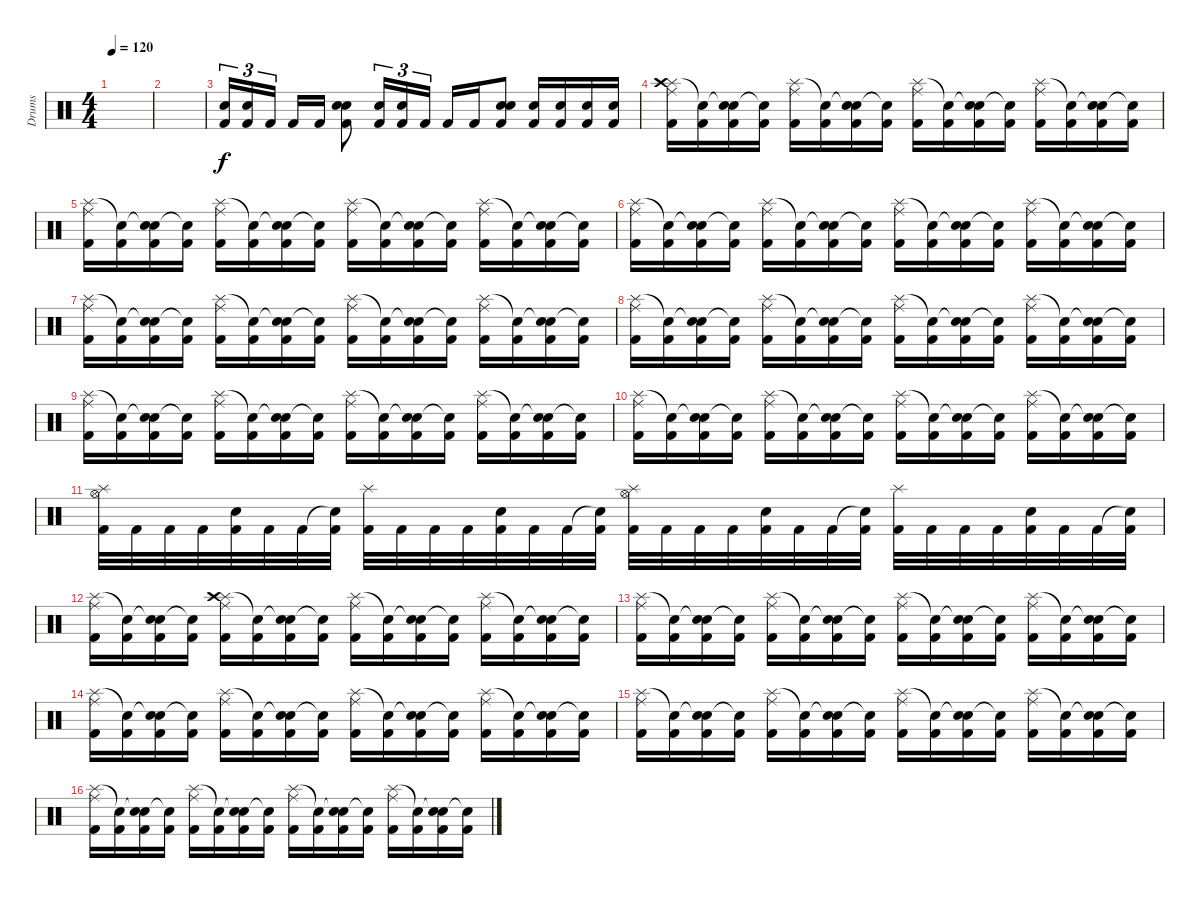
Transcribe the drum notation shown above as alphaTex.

\track ("Drums" "Drums") {instrument percussion}
\staff {score}
\articulation defaults
\ts (4 4)
\tempo 120
\clef neutral
\ks c
|
|
("Snare (hit) 2" "Kick (hit) 2").16{tu (3 2)} ("Snare (hit) 2" "Kick (hit) 2").16{tu (3 2)} "Kick (hit) 2".16{tu (3 2)} "Kick (hit) 2".16 "Kick (hit) 2".16 ("Electric Snare (hit)" "Snare (hit) 2" "Kick (hit) 2").8 ("Snare (hit) 2" "Kick (hit) 2").16{tu (3 2)} ("Snare (hit) 2" "Kick (hit) 2").16{tu (3 2)} "Kick (hit) 2".16{tu (3 2)} "Kick (hit) 2".16 "Kick (hit) 2".16 ("Electric Snare (hit)" "Snare (hit) 2" "Kick (hit) 2").8 ("Electric Snare (hit)" "Kick (hit) 2").16 ("Electric Snare (hit)" "Kick (hit) 2").16 ("Electric Snare (hit)" "Kick (hit) 2").16 ("Electric Snare (hit)" "Kick (hit) 2").16 |
("Splash (hit)" "Ride (middle)" "Kick (hit) 2" "Crash high (hit)").16 ("Snare (hit)"{t} "Kick (hit) 2").16 ("Snare (hit)"{t} "Electric Snare (hit)" "Kick (hit) 2").16 ("Snare (hit)"{t} "Kick (hit) 2").16 ("Splash (hit)" "Ride (middle)" "Kick (hit) 2").16 ("Snare (hit)"{t} "Kick (hit) 2").16 ("Snare (hit)"{t} "Electric Snare (hit)" "Kick (hit) 2").16 ("Snare (hit)"{t} "Kick (hit) 2").16 ("Splash (hit)" "Ride (middle)" "Kick (hit) 2").16 ("Snare (hit)"{t} "Kick (hit) 2").16 ("Snare (hit)"{t} "Electric Snare (hit)" "Kick (hit) 2").16 ("Snare (hit)"{t} "Kick (hit) 2").16 ("Splash (hit)" "Ride (middle)" "Kick (hit) 2").16 ("Snare (hit)"{t} "Kick (hit) 2").16 ("Snare (hit)"{t} "Electric Snare (hit)" "Kick (hit) 2").16 ("Snare (hit)"{t} "Kick (hit) 2").16 |
("Splash (hit)" "Ride (middle)" "Kick (hit) 2").16 ("Snare (hit)"{t} "Kick (hit) 2").16 ("Snare (hit)"{t} "Electric Snare (hit)" "Kick (hit) 2").16 ("Snare (hit)"{t} "Kick (hit) 2").16 ("Splash (hit)" "Ride (middle)" "Kick (hit) 2").16 ("Snare (hit)"{t} "Kick (hit) 2").16 ("Snare (hit)"{t} "Electric Snare (hit)" "Kick (hit) 2").16 ("Snare (hit)"{t} "Kick (hit) 2").16 ("Splash (hit)" "Ride (middle)" "Kick (hit) 2").16 ("Snare (hit)"{t} "Kick (hit) 2").16 ("Snare (hit)"{t} "Electric Snare (hit)" "Kick (hit) 2").16 ("Snare (hit)"{t} "Kick (hit) 2").16 ("Splash (hit)" "Ride (middle)" "Kick (hit) 2").16 ("Snare (hit)"{t} "Kick (hit) 2").16 ("Snare (hit)"{t} "Electric Snare (hit)" "Kick (hit) 2").16 ("Snare (hit)"{t} "Kick (hit) 2").16 |
("Splash (hit)" "Ride (middle)" "Kick (hit) 2").16 ("Snare (hit)"{t} "Kick (hit) 2").16 ("Snare (hit)"{t} "Electric Snare (hit)" "Kick (hit) 2").16 ("Snare (hit)"{t} "Kick (hit) 2").16 ("Splash (hit)" "Ride (middle)" "Kick (hit) 2").16 ("Snare (hit)"{t} "Kick (hit) 2").16 ("Snare (hit)"{t} "Electric Snare (hit)" "Kick (hit) 2").16 ("Snare (hit)"{t} "Kick (hit) 2").16 ("Splash (hit)" "Ride (middle)" "Kick (hit) 2").16 ("Snare (hit)"{t} "Kick (hit) 2").16 ("Snare (hit)"{t} "Electric Snare (hit)" "Kick (hit) 2").16 ("Snare (hit)"{t} "Kick (hit) 2").16 ("Splash (hit)" "Ride (middle)" "Kick (hit) 2").16 ("Snare (hit)"{t} "Kick (hit) 2").16 ("Snare (hit)"{t} "Electric Snare (hit)" "Kick (hit) 2").16 ("Snare (hit)"{t} "Kick (hit) 2").16 |
("Splash (hit)" "Ride (middle)" "Kick (hit) 2").16 ("Snare (hit)"{t} "Kick (hit) 2").16 ("Snare (hit)"{t} "Electric Snare (hit)" "Kick (hit) 2").16 ("Snare (hit)"{t} "Kick (hit) 2").16 ("Splash (hit)" "Ride (middle)" "Kick (hit) 2").16 ("Snare (hit)"{t} "Kick (hit) 2").16 ("Snare (hit)"{t} "Electric Snare (hit)" "Kick (hit) 2").16 ("Snare (hit)"{t} "Kick (hit) 2").16 ("Splash (hit)" "Ride (middle)" "Kick (hit) 2").16 ("Snare (hit)"{t} "Kick (hit) 2").16 ("Snare (hit)"{t} "Electric Snare (hit)" "Kick (hit) 2").16 ("Snare (hit)"{t} "Kick (hit) 2").16 ("Splash (hit)" "Ride (middle)" "Kick (hit) 2").16 ("Snare (hit)"{t} "Kick (hit) 2").16 ("Snare (hit)"{t} "Electric Snare (hit)" "Kick (hit) 2").16 ("Snare (hit)"{t} "Kick (hit) 2").16 |
("Splash (hit)" "Ride (middle)" "Kick (hit) 2").16 ("Snare (hit)"{t} "Kick (hit) 2").16 ("Snare (hit)"{t} "Electric Snare (hit)" "Kick (hit) 2").16 ("Snare (hit)"{t} "Kick (hit) 2").16 ("Splash (hit)" "Ride (middle)" "Kick (hit) 2").16 ("Snare (hit)"{t} "Kick (hit) 2").16 ("Snare (hit)"{t} "Electric Snare (hit)" "Kick (hit) 2").16 ("Snare (hit)"{t} "Kick (hit) 2").16 ("Splash (hit)" "Ride (middle)" "Kick (hit) 2").16 ("Snare (hit)"{t} "Kick (hit) 2").16 ("Snare (hit)"{t} "Electric Snare (hit)" "Kick (hit) 2").16 ("Snare (hit)"{t} "Kick (hit) 2").16 ("Splash (hit)" "Ride (middle)" "Kick (hit) 2").16 ("Snare (hit)"{t} "Kick (hit) 2").16 ("Snare (hit)"{t} "Electric Snare (hit)" "Kick (hit) 2").16 ("Snare (hit)"{t} "Kick (hit) 2").16 |
("Splash (hit)" "Ride (middle)" "Kick (hit) 2").16 ("Snare (hit)"{t} "Kick (hit) 2").16 ("Snare (hit)"{t} "Electric Snare (hit)" "Kick (hit) 2").16 ("Snare (hit)"{t} "Kick (hit) 2").16 ("Splash (hit)" "Ride (middle)" "Kick (hit) 2").16 ("Snare (hit)"{t} "Kick (hit) 2").16 ("Snare (hit)"{t} "Electric Snare (hit)" "Kick (hit) 2").16 ("Snare (hit)"{t} "Kick (hit) 2").16 ("Splash (hit)" "Ride (middle)" "Kick (hit) 2").16 ("Snare (hit)"{t} "Kick (hit) 2").16 ("Snare (hit)"{t} "Electric Snare (hit)" "Kick (hit) 2").16 ("Snare (hit)"{t} "Kick (hit) 2").16 ("Splash (hit)" "Ride (middle)" "Kick (hit) 2").16 ("Snare (hit)"{t} "Kick (hit) 2").16 ("Snare (hit)"{t} "Electric Snare (hit)" "Kick (hit) 2").16 ("Snare (hit)"{t} "Kick (hit) 2").16 |
("Splash (hit)" "Ride (middle)" "Kick (hit) 2").16 ("Snare (hit)"{t} "Kick (hit) 2").16 ("Snare (hit)"{t} "Electric Snare (hit)" "Kick (hit) 2").16 ("Snare (hit)"{t} "Kick (hit) 2").16 ("Splash (hit)" "Ride (middle)" "Kick (hit) 2").16 ("Snare (hit)"{t} "Kick (hit) 2").16 ("Snare (hit)"{t} "Electric Snare (hit)" "Kick (hit) 2").16 ("Snare (hit)"{t} "Kick (hit) 2").16 ("Splash (hit)" "Ride (middle)" "Kick (hit) 2").16 ("Snare (hit)"{t} "Kick (hit) 2").16 ("Snare (hit)"{t} "Electric Snare (hit)" "Kick (hit) 2").16 ("Snare (hit)"{t} "Kick (hit) 2").16 ("Splash (hit)" "Ride (middle)" "Kick (hit) 2").16 ("Snare (hit)"{t} "Kick (hit) 2").16 ("Snare (hit)"{t} "Electric Snare (hit)" "Kick (hit) 2").16 ("Snare (hit)"{t} "Kick (hit) 2").16 |
("Splash (hit)" "Hi-Hat (open)" "Kick (hit) 2").32 "Kick (hit) 2".32 "Kick (hit) 2".32 "Kick (hit) 2".32 ("Electric Snare (hit)" "Kick (hit) 2").32 "Kick (hit) 2".32 "Kick (hit) 2".32 ("Snare (hit)"{t} "Kick (hit) 2").32 ("Splash (hit)" "Kick (hit) 2").32 "Kick (hit) 2".32 "Kick (hit) 2".32 "Kick (hit) 2".32 ("Electric Snare (hit)" "Kick (hit) 2").32 "Kick (hit) 2".32 "Kick (hit) 2".32 ("Snare (hit)"{t} "Kick (hit) 2").32 ("Splash (hit)" "Hi-Hat (open)" "Kick (hit) 2").32 "Kick (hit) 2".32 "Kick (hit) 2".32 "Kick (hit) 2".32 ("Electric Snare (hit)" "Kick (hit) 2").32 "Kick (hit) 2".32 "Kick (hit) 2".32 ("Snare (hit)"{t} "Kick (hit) 2").32 ("Splash (hit)" "Kick (hit) 2").32 "Kick (hit) 2".32 "Kick (hit) 2".32 "Kick (hit) 2".32 ("Electric Snare (hit)" "Kick (hit) 2").32 "Kick (hit) 2".32 "Kick (hit) 2".32 ("Snare (hit)"{t} "Kick (hit) 2").32 |
("Splash (hit)" "Ride (middle)" "Kick (hit) 2").16 ("Snare (hit)"{t} "Kick (hit) 2").16 ("Snare (hit)"{t} "Electric Snare (hit)" "Kick (hit) 2").16 ("Snare (hit)"{t} "Kick (hit) 2").16 ("Splash (hit)" "Ride (middle)" "Kick (hit) 2" "Crash high (hit)").16 ("Snare (hit)"{t} "Kick (hit) 2").16 ("Snare (hit)"{t} "Electric Snare (hit)" "Kick (hit) 2").16 ("Snare (hit)"{t} "Kick (hit) 2").16 ("Splash (hit)" "Ride (middle)" "Kick (hit) 2").16 ("Snare (hit)"{t} "Kick (hit) 2").16 ("Snare (hit)"{t} "Electric Snare (hit)" "Kick (hit) 2").16 ("Snare (hit)"{t} "Kick (hit) 2").16 ("Splash (hit)" "Ride (middle)" "Kick (hit) 2").16 ("Snare (hit)"{t} "Kick (hit) 2").16 ("Snare (hit)"{t} "Electric Snare (hit)" "Kick (hit) 2").16 ("Snare (hit)"{t} "Kick (hit) 2").16 |
("Splash (hit)" "Ride (middle)" "Kick (hit) 2").16 ("Snare (hit)"{t} "Kick (hit) 2").16 ("Snare (hit)"{t} "Electric Snare (hit)" "Kick (hit) 2").16 ("Snare (hit)"{t} "Kick (hit) 2").16 ("Splash (hit)" "Ride (middle)" "Kick (hit) 2").16 ("Snare (hit)"{t} "Kick (hit) 2").16 ("Snare (hit)"{t} "Electric Snare (hit)" "Kick (hit) 2").16 ("Snare (hit)"{t} "Kick (hit) 2").16 ("Splash (hit)" "Ride (middle)" "Kick (hit) 2").16 ("Snare (hit)"{t} "Kick (hit) 2").16 ("Snare (hit)"{t} "Electric Snare (hit)" "Kick (hit) 2").16 ("Snare (hit)"{t} "Kick (hit) 2").16 ("Splash (hit)" "Ride (middle)" "Kick (hit) 2").16 ("Snare (hit)"{t} "Kick (hit) 2").16 ("Snare (hit)"{t} "Electric Snare (hit)" "Kick (hit) 2").16 ("Snare (hit)"{t} "Kick (hit) 2").16 |
("Splash (hit)" "Ride (middle)" "Kick (hit) 2").16 ("Snare (hit)"{t} "Kick (hit) 2").16 ("Snare (hit)"{t} "Electric Snare (hit)" "Kick (hit) 2").16 ("Snare (hit)"{t} "Kick (hit) 2").16 ("Splash (hit)" "Ride (middle)" "Kick (hit) 2").16 ("Snare (hit)"{t} "Kick (hit) 2").16 ("Snare (hit)"{t} "Electric Snare (hit)" "Kick (hit) 2").16 ("Snare (hit)"{t} "Kick (hit) 2").16 ("Splash (hit)" "Ride (middle)" "Kick (hit) 2").16 ("Snare (hit)"{t} "Kick (hit) 2").16 ("Snare (hit)"{t} "Electric Snare (hit)" "Kick (hit) 2").16 ("Snare (hit)"{t} "Kick (hit) 2").16 ("Splash (hit)" "Ride (middle)" "Kick (hit) 2").16 ("Snare (hit)"{t} "Kick (hit) 2").16 ("Snare (hit)"{t} "Electric Snare (hit)" "Kick (hit) 2").16 ("Snare (hit)"{t} "Kick (hit) 2").16 |
("Splash (hit)" "Ride (middle)" "Kick (hit) 2").16 ("Snare (hit)"{t} "Kick (hit) 2").16 ("Snare (hit)"{t} "Electric Snare (hit)" "Kick (hit) 2").16 ("Snare (hit)"{t} "Kick (hit) 2").16 ("Splash (hit)" "Ride (middle)" "Kick (hit) 2").16 ("Snare (hit)"{t} "Kick (hit) 2").16 ("Snare (hit)"{t} "Electric Snare (hit)" "Kick (hit) 2").16 ("Snare (hit)"{t} "Kick (hit) 2").16 ("Splash (hit)" "Ride (middle)" "Kick (hit) 2").16 ("Snare (hit)"{t} "Kick (hit) 2").16 ("Snare (hit)"{t} "Electric Snare (hit)" "Kick (hit) 2").16 ("Snare (hit)"{t} "Kick (hit) 2").16 ("Splash (hit)" "Ride (middle)" "Kick (hit) 2").16 ("Snare (hit)"{t} "Kick (hit) 2").16 ("Snare (hit)"{t} "Electric Snare (hit)" "Kick (hit) 2").16 ("Snare (hit)"{t} "Kick (hit) 2").16 |
("Splash (hit)" "Ride (middle)" "Kick (hit) 2").16 ("Snare (hit)"{t} "Kick (hit) 2").16 ("Snare (hit)"{t} "Electric Snare (hit)" "Kick (hit) 2").16 ("Snare (hit)"{t} "Kick (hit) 2").16 ("Splash (hit)" "Ride (middle)" "Kick (hit) 2").16 ("Snare (hit)"{t} "Kick (hit) 2").16 ("Snare (hit)"{t} "Electric Snare (hit)" "Kick (hit) 2").16 ("Snare (hit)"{t} "Kick (hit) 2").16 ("Splash (hit)" "Ride (middle)" "Kick (hit) 2").16 ("Snare (hit)"{t} "Kick (hit) 2").16 ("Snare (hit)"{t} "Electric Snare (hit)" "Kick (hit) 2").16 ("Snare (hit)"{t} "Kick (hit) 2").16 ("Splash (hit)" "Ride (middle)" "Kick (hit) 2").16 ("Snare (hit)"{t} "Kick (hit) 2").16 ("Snare (hit)"{t} "Electric Snare (hit)" "Kick (hit) 2").16 ("Snare (hit)"{t} "Kick (hit) 2").16
